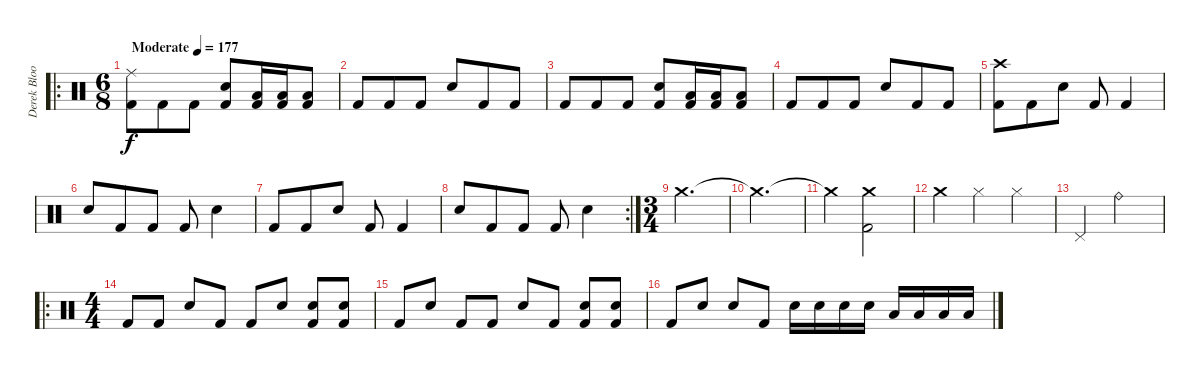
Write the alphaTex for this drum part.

\track ("Derek Bloom" "Derek Bloo") {instrument percussion}
\staff {score}
\articulation defaults
\ro
\ts (6 8)
\tempo (177 "Moderate")
\clef neutral
\ks c
("Ride (middle)" "Kick (hit) 2").8{dy f} "Kick (hit) 2".8 "Kick (hit) 2".8 ("Electric Snare (hit)" "Kick (hit) 2").8 ("Low Floor Tom (hit)" "Kick (hit) 2").16 ("Low Floor Tom (hit)" "Kick (hit) 2").16 ("Low Floor Tom (hit)" "Kick (hit) 2").8 |
"Kick (hit) 2".8 "Kick (hit) 2".8 "Kick (hit) 2".8 "Electric Snare (hit)".8 "Kick (hit) 2".8 "Kick (hit) 2".8 |
"Kick (hit) 2".8 "Kick (hit) 2".8 "Kick (hit) 2".8 ("Electric Snare (hit)" "Kick (hit) 2").8 ("Low Floor Tom (hit)" "Kick (hit) 2").16 ("Low Floor Tom (hit)" "Kick (hit) 2").16 ("Low Floor Tom (hit)" "Kick (hit) 2").8 |
"Kick (hit) 2".8 "Kick (hit) 2".8 "Kick (hit) 2".8 "Electric Snare (hit)".8 "Kick (hit) 2".8 "Kick (hit) 2".8 |
("Crash high (hit)" "Kick (hit) 2").8 "Kick (hit) 2".8 "Electric Snare (hit)".8 "Kick (hit) 2".8 "Kick (hit) 2".4 |
"Electric Snare (hit)".8 "Kick (hit) 2".8 "Kick (hit) 2".8 "Kick (hit) 2".8 "Electric Snare (hit)".4 |
"Kick (hit) 2".8 "Kick (hit) 2".8 "Electric Snare (hit)".8 "Kick (hit) 2".8 "Kick (hit) 2".4 |
\rc 2 "Electric Snare (hit)".8 "Kick (hit) 2".8 "Kick (hit) 2".8 "Kick (hit) 2".8 "Electric Snare (hit)".4
|
\ts (3 4)
"Crash medium (hit)".2{d} |
"Crash medium (hit)"{t}.2{d} |
"Crash medium (hit)"{t}.4 ("Crash medium (hit)" "Kick (hit) 2").2 |
"Crash medium (hit)".4 "Hi-Hat (closed)".4 "Hi-Hat (closed)".4 |
"Pedal Hi-Hat (hit)".4 "Ride (bell)".2 |
\ro
\ts (4 4)
"Kick (hit) 2".8 "Kick (hit) 2".8 "Electric Snare (hit)".8 "Kick (hit) 2".8 "Kick (hit) 2".8 "Electric Snare (hit)".8 ("Electric Snare (hit)" "Kick (hit) 2").8 ("Electric Snare (hit)" "Kick (hit) 2").8 |
"Kick (hit) 2".8 "Electric Snare (hit)".8 "Kick (hit) 2".8 "Kick (hit) 2".8 "Electric Snare (hit)".8 "Kick (hit) 2".8 ("Electric Snare (hit)" "Kick (hit) 2").8 ("Electric Snare (hit)" "Kick (hit) 2").8 |
"Kick (hit) 2".8 "Electric Snare (hit)".8 "Electric Snare (hit)".8 "Kick (hit) 2".8 "Electric Snare (hit)".16 "Electric Snare (hit)".16 "Electric Snare (hit)".16 "Electric Snare (hit)".16 "Low Tom (hit)".16 "Low Tom (hit)".16 "Low Tom (hit)".16 "Low Tom (hit)".16
